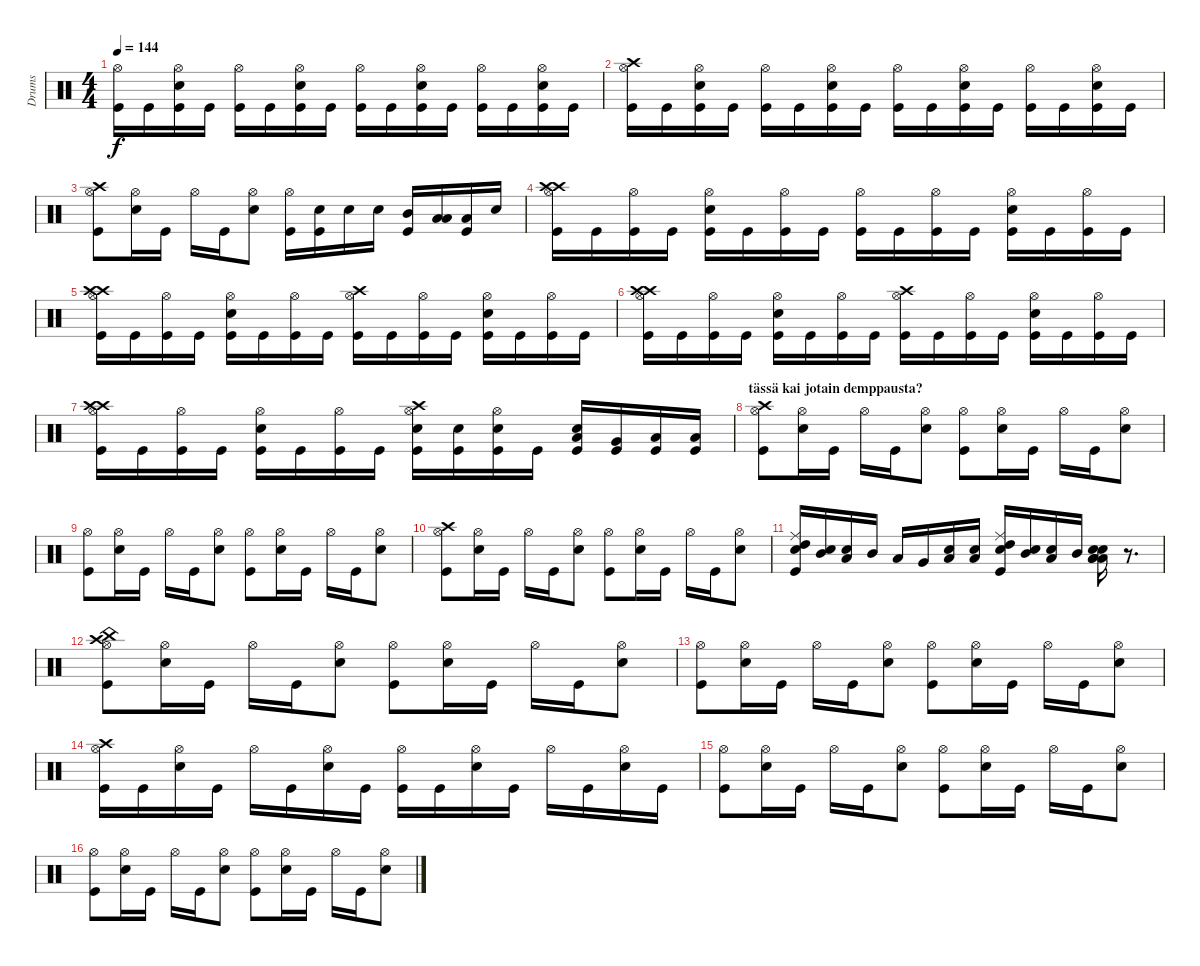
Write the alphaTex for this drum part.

\track ("Drums" "Drums") {instrument percussion}
\staff {score}
\articulation defaults
\ts (4 4)
\tempo 144
\clef neutral
\ks c
("Hi-Hat (open)" "Kick (hit)").16{dy f} "Kick (hit)".16 ("Kick (hit)" "Hi-Hat (open)" "Electric Snare (hit)").16 "Kick (hit)".16 ("Kick (hit)" "Hi-Hat (open)").16 "Kick (hit)".16 ("Kick (hit)" "Hi-Hat (open)" "Electric Snare (hit)").16 "Kick (hit)".16 ("Hi-Hat (open)" "Kick (hit)").16 "Kick (hit)".16 ("Kick (hit)" "Hi-Hat (open)" "Electric Snare (hit)").16 "Kick (hit)".16 ("Kick (hit)" "Hi-Hat (open)").16 "Kick (hit)".16 ("Kick (hit)" "Hi-Hat (open)" "Electric Snare (hit)").16 "Kick (hit)".16 |
("Hi-Hat (open)" "Crash high (hit)" "Kick (hit)").16 "Kick (hit)".16 ("Kick (hit)" "Hi-Hat (open)" "Electric Snare (hit)").16 "Kick (hit)".16 ("Kick (hit)" "Hi-Hat (open)").16 "Kick (hit)".16 ("Kick (hit)" "Hi-Hat (open)" "Electric Snare (hit)").16 "Kick (hit)".16 ("Hi-Hat (open)" "Kick (hit)").16 "Kick (hit)".16 ("Kick (hit)" "Hi-Hat (open)" "Electric Snare (hit)").16 "Kick (hit)".16 ("Kick (hit)" "Hi-Hat (open)").16 "Kick (hit)".16 ("Kick (hit)" "Hi-Hat (open)" "Electric Snare (hit)").16 "Kick (hit)".16 |
("Hi-Hat (open)" "Crash high (hit)" "Kick (hit)").8 ("Hi-Hat (open)" "Electric Snare (hit)").16 "Kick (hit)".16 "Hi-Hat (open)".16 "Kick (hit)".16 ("Hi-Hat (open)" "Electric Snare (hit)").8 ("Hi-Hat (open)" "Kick (hit)").16 ("Electric Snare (hit)" "Kick (hit)").16 "Electric Snare (hit)".16 "Electric Snare (hit)".16 ("Mid Tom (hit)" "Kick (hit)").16 ("Low Floor Tom (hit)" "Low Tom (hit)").16 ("Low Floor Tom (hit)" "Kick (hit)").16 "Electric Snare (hit)".16 |
("Crash high (hit)" "Hi-Hat (open)" "Crash high (hit)" "Kick (hit)").16 "Kick (hit)".16 ("Kick (hit)" "Hi-Hat (open)").16 "Kick (hit)".16 ("Electric Snare (hit)" "Kick (hit)" "Hi-Hat (open)").16 "Kick (hit)".16 ("Kick (hit)" "Hi-Hat (open)").16 "Kick (hit)".16 ("Hi-Hat (open)" "Kick (hit)").16 "Kick (hit)".16 ("Kick (hit)" "Hi-Hat (open)").16 "Kick (hit)".16 ("Electric Snare (hit)" "Kick (hit)" "Hi-Hat (open)").16 "Kick (hit)".16 ("Kick (hit)" "Hi-Hat (open)").16 "Kick (hit)".16 |
("Crash high (hit)" "Hi-Hat (open)" "Crash high (hit)" "Kick (hit)").16 "Kick (hit)".16 ("Kick (hit)" "Hi-Hat (open)").16 "Kick (hit)".16 ("Electric Snare (hit)" "Kick (hit)" "Hi-Hat (open)").16 "Kick (hit)".16 ("Kick (hit)" "Hi-Hat (open)").16 "Kick (hit)".16 ("Crash high (hit)" "Hi-Hat (open)" "Kick (hit)").16 "Kick (hit)".16 ("Kick (hit)" "Hi-Hat (open)").16 "Kick (hit)".16 ("Electric Snare (hit)" "Kick (hit)" "Hi-Hat (open)").16 "Kick (hit)".16 ("Kick (hit)" "Hi-Hat (open)").16 "Kick (hit)".16 |
("Crash high (hit)" "Hi-Hat (open)" "Crash high (hit)" "Kick (hit)").16 "Kick (hit)".16 ("Kick (hit)" "Hi-Hat (open)").16 "Kick (hit)".16 ("Electric Snare (hit)" "Kick (hit)" "Hi-Hat (open)").16 "Kick (hit)".16 ("Kick (hit)" "Hi-Hat (open)").16 "Kick (hit)".16 ("Crash high (hit)" "Hi-Hat (open)" "Kick (hit)").16 "Kick (hit)".16 ("Kick (hit)" "Hi-Hat (open)").16 "Kick (hit)".16 ("Electric Snare (hit)" "Kick (hit)" "Hi-Hat (open)").16 "Kick (hit)".16 ("Kick (hit)" "Hi-Hat (open)").16 "Kick (hit)".16 |
("Crash high (hit)" "Hi-Hat (open)" "Crash high (hit)" "Kick (hit)").16 "Kick (hit)".16 ("Kick (hit)" "Hi-Hat (open)").16 "Kick (hit)".16 ("Electric Snare (hit)" "Kick (hit)" "Hi-Hat (open)").16 "Kick (hit)".16 ("Kick (hit)" "Hi-Hat (open)").16 "Kick (hit)".16 ("Electric Snare (hit)" "Crash high (hit)" "Hi-Hat (open)" "Kick (hit)").16 ("Electric Snare (hit)" "Kick (hit)").16 ("Electric Snare (hit)" "Kick (hit)" "Hi-Hat (open)").16 "Kick (hit)".16 ("Low Tom (hit)" "Electric Snare (hit)" "Kick (hit)").16 ("Very Low Tom (hit)" "Kick (hit)").16 ("Low Floor Tom (hit)" "Kick (hit)").16 ("Low Floor Tom (hit)" "Kick (hit)").16 |
\section ("" "tässä kai jotain demppausta?")
("Hi-Hat (open)" "Crash high (hit)" "Kick (hit)").8 ("Hi-Hat (open)" "Electric Snare (hit)").16 "Kick (hit)".16 "Hi-Hat (open)".16 "Kick (hit)".16 ("Hi-Hat (open)" "Electric Snare (hit)").8 ("Hi-Hat (open)" "Kick (hit)").8 ("Hi-Hat (open)" "Electric Snare (hit)").16 "Kick (hit)".16 "Hi-Hat (open)".16 "Kick (hit)".16 ("Hi-Hat (open)" "Electric Snare (hit)").8 |
("Hi-Hat (open)" "Kick (hit)").8 ("Hi-Hat (open)" "Electric Snare (hit)").16 "Kick (hit)".16 "Hi-Hat (open)".16 "Kick (hit)".16 ("Hi-Hat (open)" "Electric Snare (hit)").8 ("Hi-Hat (open)" "Kick (hit)").8 ("Hi-Hat (open)" "Electric Snare (hit)").16 "Kick (hit)".16 "Hi-Hat (open)".16 "Kick (hit)".16 ("Hi-Hat (open)" "Electric Snare (hit)").8 |
("Hi-Hat (open)" "Crash high (hit)" "Kick (hit)").8 ("Hi-Hat (open)" "Electric Snare (hit)").16 "Kick (hit)".16 "Hi-Hat (open)".16 "Kick (hit)".16 ("Hi-Hat (open)" "Electric Snare (hit)").8 ("Hi-Hat (open)" "Kick (hit)").8 ("Hi-Hat (open)" "Electric Snare (hit)").16 "Kick (hit)".16 "Hi-Hat (open)".16 "Kick (hit)".16 ("Hi-Hat (open)" "Electric Snare (hit)").8 |
("Electric Snare (hit)" "Ride (middle)" "High Tom (hit)" "Kick (hit)").16 ("Electric Snare (hit)" "Mid Tom (hit)").16 ("Electric Snare (hit)" "Low Tom (hit)").16 "Mid Tom (hit)".16 "Low Tom (hit)".16 "Very Low Tom (hit)".16 ("Electric Snare (hit)" "Low Tom (hit)").16 ("Snare (hit) 2" "Low Floor Tom (hit)").16 ("Electric Snare (hit)" "Ride (middle)" "High Tom (hit)" "Kick (hit)").16 ("Electric Snare (hit)" "Mid Tom (hit)").16 ("Electric Snare (hit)" "Low Tom (hit)").16 "Mid Tom (hit)".16 ("Snare (hit) 2" "Low Floor Tom (hit)" "Electric Snare (hit)" "Low Tom (hit)" "Low Tom (hit)").16 r.8{d} |
("China (hit)" "Hi-Hat (open)" "Crash high (hit)" "Kick (hit)").8 ("Hi-Hat (open)" "Electric Snare (hit)").16 "Kick (hit)".16 "Hi-Hat (open)".16 "Kick (hit)".16 ("Hi-Hat (open)" "Electric Snare (hit)").8 ("Hi-Hat (open)" "Kick (hit)").8 ("Hi-Hat (open)" "Electric Snare (hit)").16 "Kick (hit)".16 "Hi-Hat (open)".16 "Kick (hit)".16 ("Hi-Hat (open)" "Electric Snare (hit)").8 |
("Hi-Hat (open)" "Kick (hit)").8 ("Hi-Hat (open)" "Electric Snare (hit)").16 "Kick (hit)".16 "Hi-Hat (open)".16 "Kick (hit)".16 ("Hi-Hat (open)" "Electric Snare (hit)").8 ("Hi-Hat (open)" "Kick (hit)").8 ("Hi-Hat (open)" "Electric Snare (hit)").16 "Kick (hit)".16 "Hi-Hat (open)".16 "Kick (hit)".16 ("Hi-Hat (open)" "Electric Snare (hit)").8 |
("Hi-Hat (open)" "Crash high (hit)" "Kick (hit)").16 "Kick (hit)".16 ("Hi-Hat (open)" "Electric Snare (hit)").16 "Kick (hit)".16 "Hi-Hat (open)".16 "Kick (hit)".16 ("Hi-Hat (open)" "Electric Snare (hit)").16 "Kick (hit)".16 ("Hi-Hat (open)" "Kick (hit)").16 "Kick (hit)".16 ("Hi-Hat (open)" "Electric Snare (hit)").16 "Kick (hit)".16 "Hi-Hat (open)".16 "Kick (hit)".16 ("Hi-Hat (open)" "Electric Snare (hit)").16 "Kick (hit)".16 |
("Hi-Hat (open)" "Kick (hit)").8 ("Hi-Hat (open)" "Electric Snare (hit)").16 "Kick (hit)".16 "Hi-Hat (open)".16 "Kick (hit)".16 ("Hi-Hat (open)" "Electric Snare (hit)").8 ("Hi-Hat (open)" "Kick (hit)").8 ("Hi-Hat (open)" "Electric Snare (hit)").16 "Kick (hit)".16 "Hi-Hat (open)".16 "Kick (hit)".16 ("Hi-Hat (open)" "Electric Snare (hit)").8 |
("Hi-Hat (open)" "Kick (hit)").8 ("Hi-Hat (open)" "Electric Snare (hit)").16 "Kick (hit)".16 "Hi-Hat (open)".16 "Kick (hit)".16 ("Hi-Hat (open)" "Electric Snare (hit)").8 ("Hi-Hat (open)" "Kick (hit)").8 ("Hi-Hat (open)" "Electric Snare (hit)").16 "Kick (hit)".16 "Hi-Hat (open)".16 "Kick (hit)".16 ("Hi-Hat (open)" "Electric Snare (hit)").8
